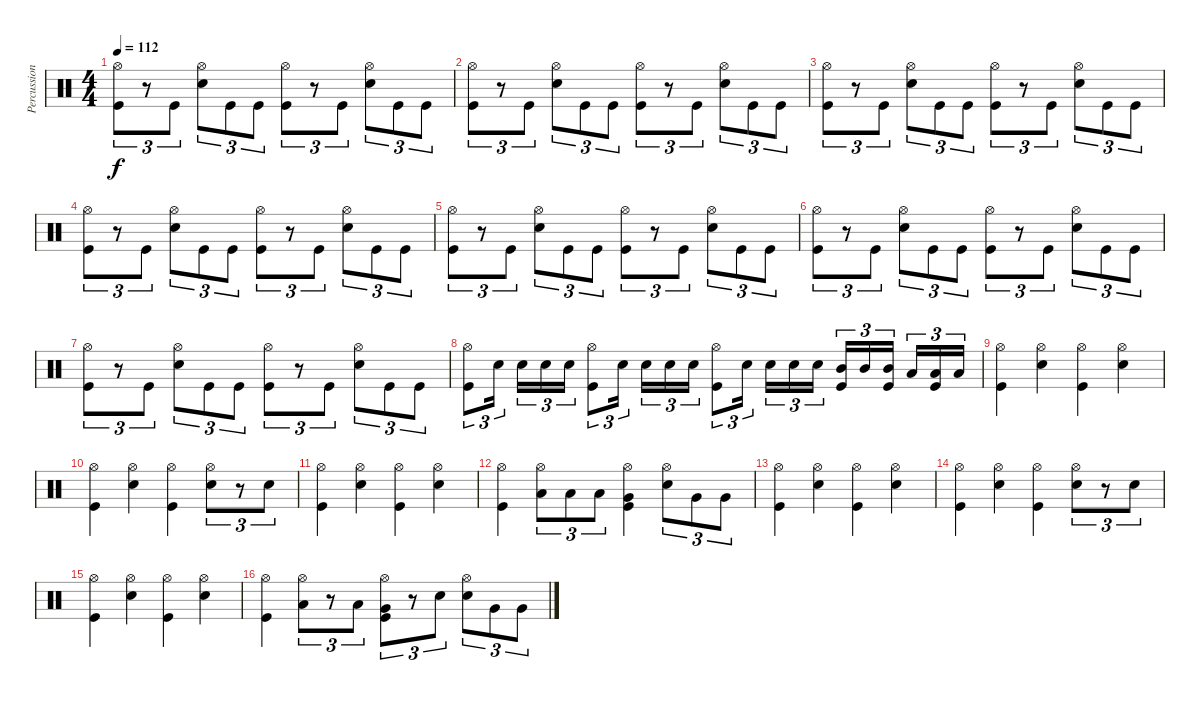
\track ("Percussion" "Percussion") {instrument percussion}
\staff {score}
\articulation defaults
\ts (4 4)
\tempo 112
\clef neutral
\ks c
("Hi-Hat (open)" "Kick (hit)").8{tu (3 2) dy f} r.8{tu (3 2)} "Kick (hit)".8{tu (3 2)} ("Hi-Hat (open)" "Snare (hit) 2").8{tu (3 2)} "Kick (hit)".8{tu (3 2)} "Kick (hit)".8{tu (3 2)} ("Hi-Hat (open)" "Kick (hit)").8{tu (3 2)} r.8{tu (3 2)} "Kick (hit)".8{tu (3 2)} ("Hi-Hat (open)" "Snare (hit) 2").8{tu (3 2)} "Kick (hit)".8{tu (3 2)} "Kick (hit)".8{tu (3 2)} |
("Hi-Hat (open)" "Kick (hit)").8{tu (3 2)} r.8{tu (3 2)} "Kick (hit)".8{tu (3 2)} ("Hi-Hat (open)" "Snare (hit) 2").8{tu (3 2)} "Kick (hit)".8{tu (3 2)} "Kick (hit)".8{tu (3 2)} ("Hi-Hat (open)" "Kick (hit)").8{tu (3 2)} r.8{tu (3 2)} "Kick (hit)".8{tu (3 2)} ("Hi-Hat (open)" "Snare (hit) 2").8{tu (3 2)} "Kick (hit)".8{tu (3 2)} "Kick (hit)".8{tu (3 2)} |
("Hi-Hat (open)" "Kick (hit)").8{tu (3 2)} r.8{tu (3 2)} "Kick (hit)".8{tu (3 2)} ("Hi-Hat (open)" "Snare (hit) 2").8{tu (3 2)} "Kick (hit)".8{tu (3 2)} "Kick (hit)".8{tu (3 2)} ("Hi-Hat (open)" "Kick (hit)").8{tu (3 2)} r.8{tu (3 2)} "Kick (hit)".8{tu (3 2)} ("Hi-Hat (open)" "Snare (hit) 2").8{tu (3 2)} "Kick (hit)".8{tu (3 2)} "Kick (hit)".8{tu (3 2)} |
("Hi-Hat (open)" "Kick (hit)").8{tu (3 2)} r.8{tu (3 2)} "Kick (hit)".8{tu (3 2)} ("Hi-Hat (open)" "Snare (hit) 2").8{tu (3 2)} "Kick (hit)".8{tu (3 2)} "Kick (hit)".8{tu (3 2)} ("Hi-Hat (open)" "Kick (hit)").8{tu (3 2)} r.8{tu (3 2)} "Kick (hit)".8{tu (3 2)} ("Hi-Hat (open)" "Snare (hit) 2").8{tu (3 2)} "Kick (hit)".8{tu (3 2)} "Kick (hit)".8{tu (3 2)} |
("Hi-Hat (open)" "Kick (hit)").8{tu (3 2)} r.8{tu (3 2)} "Kick (hit)".8{tu (3 2)} ("Hi-Hat (open)" "Snare (hit) 2").8{tu (3 2)} "Kick (hit)".8{tu (3 2)} "Kick (hit)".8{tu (3 2)} ("Hi-Hat (open)" "Kick (hit)").8{tu (3 2)} r.8{tu (3 2)} "Kick (hit)".8{tu (3 2)} ("Hi-Hat (open)" "Snare (hit) 2").8{tu (3 2)} "Kick (hit)".8{tu (3 2)} "Kick (hit)".8{tu (3 2)} |
("Hi-Hat (open)" "Kick (hit)").8{tu (3 2)} r.8{tu (3 2)} "Kick (hit)".8{tu (3 2)} ("Hi-Hat (open)" "Snare (hit) 2").8{tu (3 2)} "Kick (hit)".8{tu (3 2)} "Kick (hit)".8{tu (3 2)} ("Hi-Hat (open)" "Kick (hit)").8{tu (3 2)} r.8{tu (3 2)} "Kick (hit)".8{tu (3 2)} ("Hi-Hat (open)" "Snare (hit) 2").8{tu (3 2)} "Kick (hit)".8{tu (3 2)} "Kick (hit)".8{tu (3 2)} |
("Hi-Hat (open)" "Kick (hit)").8{tu (3 2)} r.8{tu (3 2)} "Kick (hit)".8{tu (3 2)} ("Hi-Hat (open)" "Snare (hit) 2").8{tu (3 2)} "Kick (hit)".8{tu (3 2)} "Kick (hit)".8{tu (3 2)} ("Hi-Hat (open)" "Kick (hit)").8{tu (3 2)} r.8{tu (3 2)} "Kick (hit)".8{tu (3 2)} ("Hi-Hat (open)" "Snare (hit) 2").8{tu (3 2)} "Kick (hit)".8{tu (3 2)} "Kick (hit)".8{tu (3 2)} |
("Hi-Hat (open)" "Kick (hit)").8{tu (3 2)} "Snare (hit) 2".16{tu (3 2)} "Snare (hit) 2".16{tu (3 2)} "Snare (hit) 2".16{tu (3 2)} "Snare (hit) 2".16{tu (3 2)} ("Hi-Hat (open)" "Kick (hit)").8{tu (3 2)} "Snare (hit) 2".16{tu (3 2)} "Snare (hit) 2".16{tu (3 2)} "Snare (hit) 2".16{tu (3 2)} "Snare (hit) 2".16{tu (3 2)} ("Hi-Hat (open)" "Kick (hit)").8{tu (3 2)} "Snare (hit) 2".16{tu (3 2)} "Snare (hit) 2".16{tu (3 2)} "Snare (hit) 2".16{tu (3 2)} "Snare (hit) 2".16{tu (3 2)} ("Mid Tom (hit)" "Kick (hit)").16{tu (3 2)} "Mid Tom (hit)".16{tu (3 2)} ("Mid Tom (hit)" "Kick (hit)").16{tu (3 2)} "Low Tom (hit)".16{tu (3 2)} ("Low Tom (hit)" "Kick (hit)").16{tu (3 2)} "Low Tom (hit)".16{tu (3 2)} |
("Hi-Hat (open)" "Kick (hit)").4 ("Hi-Hat (open)" "Snare (hit) 2").4 ("Hi-Hat (open)" "Kick (hit)").4 ("Hi-Hat (open)" "Snare (hit) 2").4 |
("Hi-Hat (open)" "Kick (hit)").4 ("Hi-Hat (open)" "Snare (hit) 2").4 ("Hi-Hat (open)" "Kick (hit)").4 ("Hi-Hat (open)" "Snare (hit) 2").8{tu (3 2)} r.8{tu (3 2)} "Snare (hit) 2".8{tu (3 2)} |
("Hi-Hat (open)" "Kick (hit)").4 ("Hi-Hat (open)" "Snare (hit) 2").4 ("Hi-Hat (open)" "Kick (hit)").4 ("Hi-Hat (open)" "Snare (hit) 2").4 |
("Hi-Hat (open)" "Kick (hit)").4 ("Hi-Hat (open)" "Low Tom (hit)").8{tu (3 2)} "Low Tom (hit)".8{tu (3 2)} "Low Tom (hit)".8{tu (3 2)} ("Hi-Hat (open)" "Very Low Tom (hit)" "Kick (hit)").4 ("Hi-Hat (open)" "Snare (hit) 2").8{tu (3 2)} "Very Low Tom (hit)".8{tu (3 2)} "Very Low Tom (hit)".8{tu (3 2)} |
("Hi-Hat (open)" "Kick (hit)").4 ("Hi-Hat (open)" "Snare (hit) 2").4 ("Hi-Hat (open)" "Kick (hit)").4 ("Hi-Hat (open)" "Snare (hit) 2").4 |
("Hi-Hat (open)" "Kick (hit)").4 ("Hi-Hat (open)" "Snare (hit) 2").4 ("Hi-Hat (open)" "Kick (hit)").4 ("Hi-Hat (open)" "Snare (hit) 2").8{tu (3 2)} r.8{tu (3 2)} "Snare (hit) 2".8{tu (3 2)} |
("Hi-Hat (open)" "Kick (hit)").4 ("Hi-Hat (open)" "Snare (hit) 2").4 ("Hi-Hat (open)" "Kick (hit)").4 ("Hi-Hat (open)" "Snare (hit) 2").4 |
("Hi-Hat (open)" "Kick (hit)").4 ("Hi-Hat (open)" "Low Tom (hit)").8{tu (3 2)} r.8{tu (3 2)} "Low Tom (hit)".8{tu (3 2)} ("Hi-Hat (open)" "Very Low Tom (hit)" "Kick (hit)").8{tu (3 2)} r.8{tu (3 2)} "Snare (hit) 2".8{tu (3 2)} ("Hi-Hat (open)" "Snare (hit) 2").8{tu (3 2)} "Very Low Tom (hit)".8{tu (3 2)} "Very Low Tom (hit)".8{tu (3 2)}
